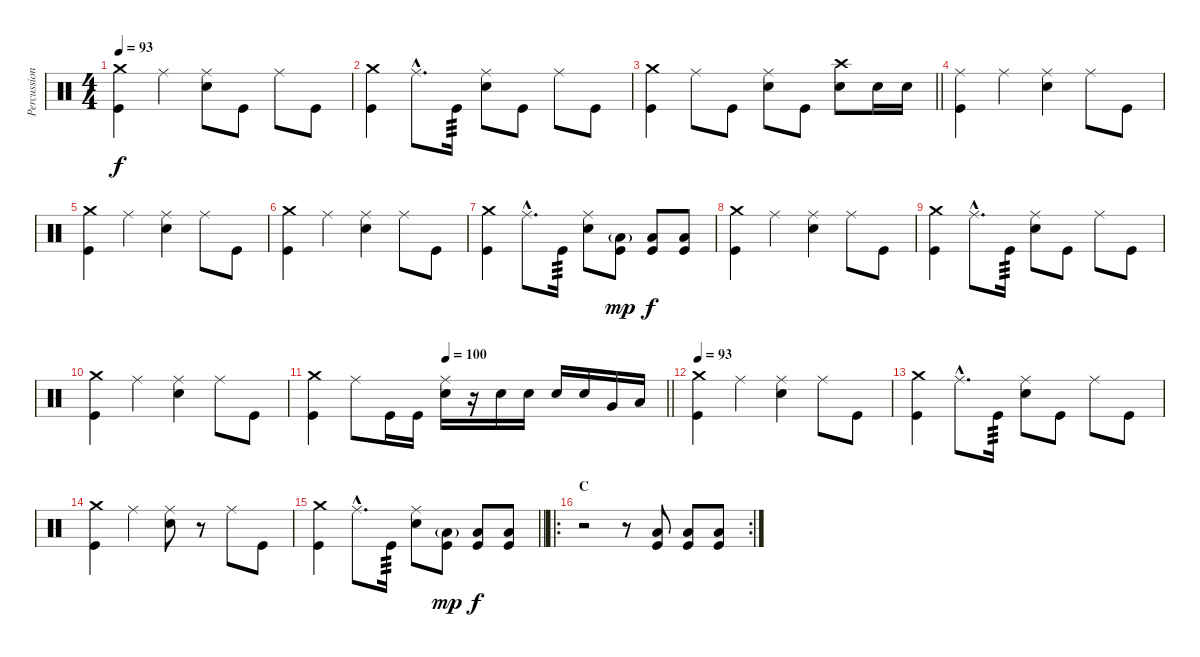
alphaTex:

\track ("Percussion" "Percussion") {instrument percussion}
\staff {score}
\articulation defaults
\ts (4 4)
\tempo 93
\clef neutral
\ks c
("Kick (hit)" "Crash medium (hit)").4{dy f} "Ride (middle)".4 ("Ride (middle)" "Snare (hit) 2").8 "Kick (hit)".8 "Ride (middle)".8 "Kick (hit)".8 |
("Kick (hit)" "Crash medium (hit)").4 "Ride (middle)"{hac}.8{d} "Kick (hit)".16{tp 3} ("Ride (middle)" "Snare (hit) 2").8 "Kick (hit)".8 "Ride (middle)".8 "Kick (hit)".8 |
\barLineRight lightlight
("Kick (hit)" "Crash medium (hit)").4 "Ride (middle)".8 "Kick (hit)".8 ("Snare (hit) 2" "Ride (middle)").8 "Kick (hit)".8 ("Snare (hit) 2" "Crash high (hit)").8 "Snare (hit) 2".16 "Snare (hit) 2".16 |
("Kick (hit)" "Ride (middle)").4 "Ride (middle)".4 ("Ride (middle)" "Snare (hit) 2").4 "Ride (middle)".8 "Kick (hit)".8 |
("Kick (hit)" "Crash medium (hit)").4 "Ride (middle)".4 ("Ride (middle)" "Snare (hit) 2").4 "Ride (middle)".8 "Kick (hit)".8 |
("Kick (hit)" "Crash medium (hit)").4 "Ride (middle)".4 ("Ride (middle)" "Snare (hit) 2").4 "Ride (middle)".8 "Kick (hit)".8 |
("Kick (hit)" "Crash medium (hit)").4 "Ride (middle)"{hac}.8{d} "Kick (hit)".16{tp 3} ("Ride (middle)" "Snare (hit) 2").8 ("Kick (hit)" "Low Floor Tom (hit)"{g}).8{dy mp} ("Kick (hit)" "Low Floor Tom (hit)").8{dy f} ("Kick (hit)" "Low Floor Tom (hit)").8 |
("Kick (hit)" "Crash medium (hit)").4 "Ride (middle)".4 ("Ride (middle)" "Snare (hit) 2").4 "Ride (middle)".8 "Kick (hit)".8 |
("Kick (hit)" "Crash medium (hit)").4 "Ride (middle)"{hac}.8{d} "Kick (hit)".16{tp 3} ("Ride (middle)" "Snare (hit) 2").8 "Kick (hit)".8 "Ride (middle)".8 "Kick (hit)".8 |
("Kick (hit)" "Crash medium (hit)").4 "Ride (middle)".4 ("Ride (middle)" "Snare (hit) 2").4 "Ride (middle)".8 "Kick (hit)".8 |
\tempo (100 0.375)
\barLineRight lightlight
("Kick (hit)" "Crash medium (hit)").4 "Ride (middle)".8 "Kick (hit)".16 "Kick (hit)".16 ("Snare (hit) 2" "Ride (middle)").16 r.16 "Snare (hit) 2".16 "Snare (hit) 2".16 "Snare (hit) 2".16 "Snare (hit) 2".16 "Very Low Tom (hit)".16 "Low Floor Tom (hit)".16 |
\tempo 93
("Kick (hit)" "Crash medium (hit)").4 "Ride (middle)".4 ("Ride (middle)" "Snare (hit) 2").4 "Ride (middle)".8 "Kick (hit)".8 |
("Kick (hit)" "Crash medium (hit)").4 "Ride (middle)"{hac}.8{d} "Kick (hit)".16{tp 3} ("Ride (middle)" "Snare (hit) 2").8 "Kick (hit)".8 "Ride (middle)".8 "Kick (hit)".8 |
("Kick (hit)" "Crash medium (hit)").4 "Ride (middle)".4 ("Ride (middle)" "Snare (hit) 2").8 r.8 "Ride (middle)".8 "Kick (hit)".8 |
\barLineRight lightlight
("Kick (hit)" "Crash medium (hit)").4 "Ride (middle)"{hac}.8{d} "Kick (hit)".16{tp 3} ("Ride (middle)" "Snare (hit) 2").8 ("Kick (hit)" "Low Floor Tom (hit)"{g}).8{dy mp} ("Kick (hit)" "Low Floor Tom (hit)").8{dy f} ("Kick (hit)" "Low Floor Tom (hit)").8 |
\ro
\rc 2
\section ("" "C")
r.2 r.8 ("Low Floor Tom (hit)" "Kick (hit)").8 ("Low Floor Tom (hit)" "Kick (hit)").8 ("Low Floor Tom (hit)" "Kick (hit)").8
